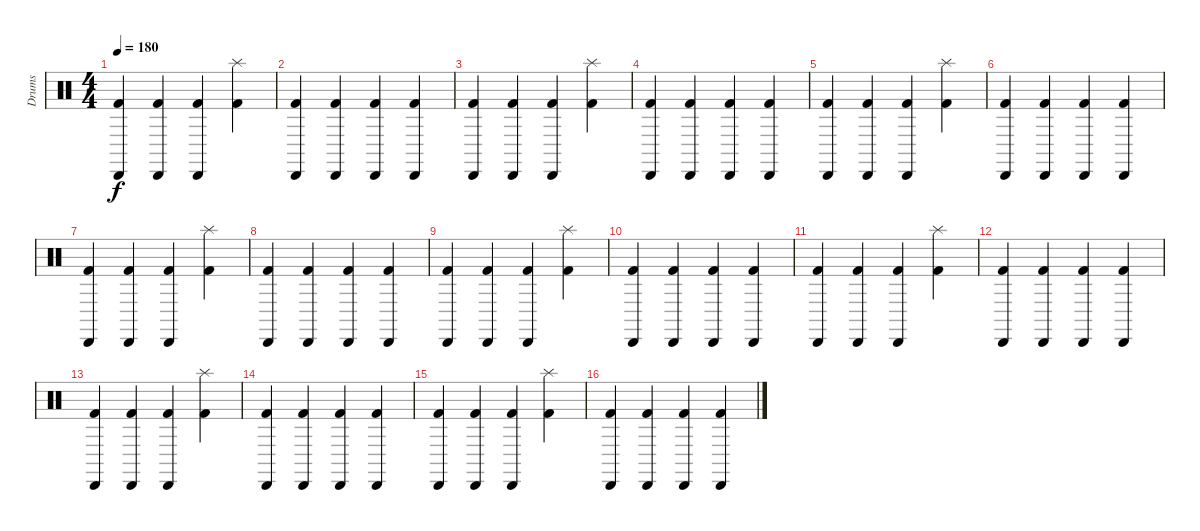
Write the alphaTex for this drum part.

\track ("Drums" "Drums") {instrument percussion}
\staff {score}
\articulation defaults
\ts (4 4)
\tempo 180
\clef neutral
\ks c
("Cabasa (hit)" "Kick (hit) 2").4{dy f} ("Cabasa (hit)" "Kick (hit) 2").4 ("Cabasa (hit)" "Kick (hit) 2").4 ("Splash (hit)" "Kick (hit) 2").4 |
("Cabasa (hit)" "Kick (hit) 2").4 ("Cabasa (hit)" "Kick (hit) 2").4 ("Cabasa (hit)" "Kick (hit) 2").4 ("Cabasa (hit)" "Kick (hit) 2").4 |
("Cabasa (hit)" "Kick (hit) 2").4 ("Cabasa (hit)" "Kick (hit) 2").4 ("Cabasa (hit)" "Kick (hit) 2").4 ("Splash (hit)" "Kick (hit) 2").4 |
("Cabasa (hit)" "Kick (hit) 2").4 ("Cabasa (hit)" "Kick (hit) 2").4 ("Cabasa (hit)" "Kick (hit) 2").4 ("Cabasa (hit)" "Kick (hit) 2").4 |
("Cabasa (hit)" "Kick (hit) 2").4 ("Cabasa (hit)" "Kick (hit) 2").4 ("Cabasa (hit)" "Kick (hit) 2").4 ("Splash (hit)" "Kick (hit) 2").4 |
("Cabasa (hit)" "Kick (hit) 2").4 ("Cabasa (hit)" "Kick (hit) 2").4 ("Cabasa (hit)" "Kick (hit) 2").4 ("Cabasa (hit)" "Kick (hit) 2").4 |
("Cabasa (hit)" "Kick (hit) 2").4 ("Cabasa (hit)" "Kick (hit) 2").4 ("Cabasa (hit)" "Kick (hit) 2").4 ("Splash (hit)" "Kick (hit) 2").4 |
("Cabasa (hit)" "Kick (hit) 2").4 ("Cabasa (hit)" "Kick (hit) 2").4 ("Cabasa (hit)" "Kick (hit) 2").4 ("Cabasa (hit)" "Kick (hit) 2").4 |
("Cabasa (hit)" "Kick (hit) 2").4 ("Cabasa (hit)" "Kick (hit) 2").4 ("Cabasa (hit)" "Kick (hit) 2").4 ("Splash (hit)" "Kick (hit) 2").4 |
("Cabasa (hit)" "Kick (hit) 2").4 ("Cabasa (hit)" "Kick (hit) 2").4 ("Cabasa (hit)" "Kick (hit) 2").4 ("Cabasa (hit)" "Kick (hit) 2").4 |
("Cabasa (hit)" "Kick (hit) 2").4 ("Cabasa (hit)" "Kick (hit) 2").4 ("Cabasa (hit)" "Kick (hit) 2").4 ("Splash (hit)" "Kick (hit) 2").4 |
("Cabasa (hit)" "Kick (hit) 2").4 ("Cabasa (hit)" "Kick (hit) 2").4 ("Cabasa (hit)" "Kick (hit) 2").4 ("Cabasa (hit)" "Kick (hit) 2").4 |
("Cabasa (hit)" "Kick (hit) 2").4 ("Cabasa (hit)" "Kick (hit) 2").4 ("Cabasa (hit)" "Kick (hit) 2").4 ("Splash (hit)" "Kick (hit) 2").4 |
("Cabasa (hit)" "Kick (hit) 2").4 ("Cabasa (hit)" "Kick (hit) 2").4 ("Cabasa (hit)" "Kick (hit) 2").4 ("Cabasa (hit)" "Kick (hit) 2").4 |
("Cabasa (hit)" "Kick (hit) 2").4 ("Cabasa (hit)" "Kick (hit) 2").4 ("Cabasa (hit)" "Kick (hit) 2").4 ("Splash (hit)" "Kick (hit) 2").4 |
("Cabasa (hit)" "Kick (hit) 2").4 ("Cabasa (hit)" "Kick (hit) 2").4 ("Cabasa (hit)" "Kick (hit) 2").4 ("Cabasa (hit)" "Kick (hit) 2").4
